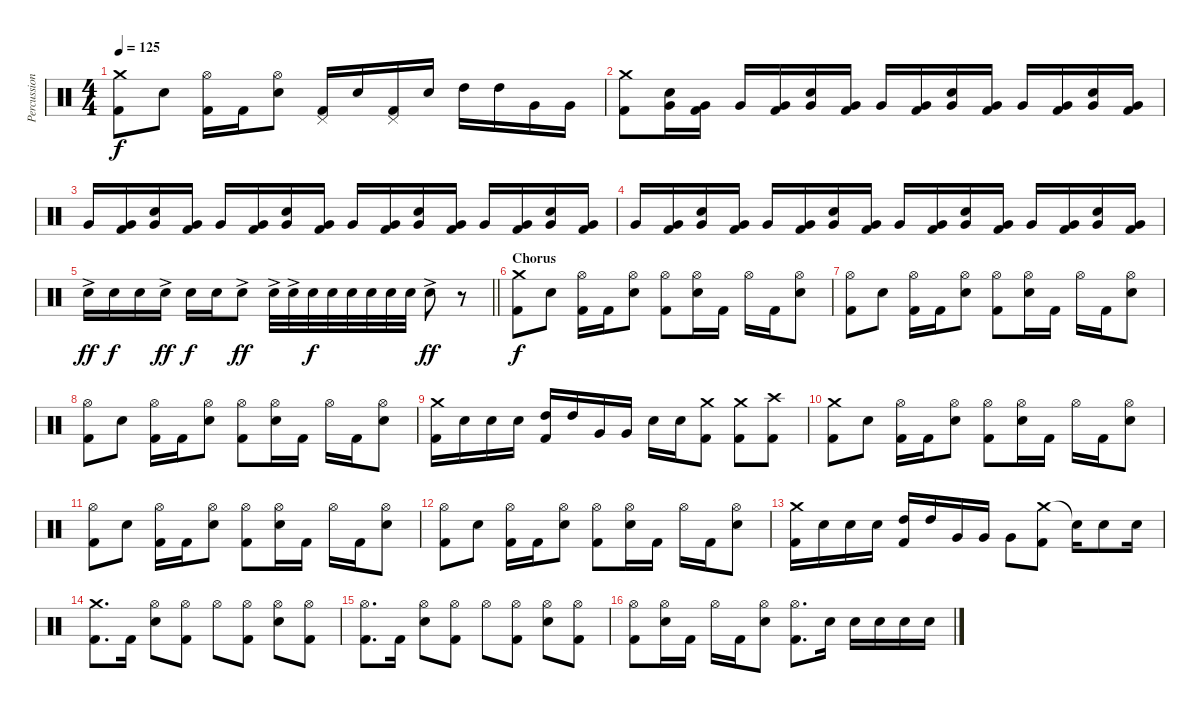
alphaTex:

\track ("Percussion" "Percussion") {instrument percussion}
\staff {score}
\articulation defaults
\ts (4 4)
\tempo 125
\clef neutral
\ks c
("Crash medium (hit)" "Kick (hit) 2").8{dy f} "Electric Snare (hit)".8 ("Hi-Hat (open)" "Kick (hit) 2").16 "Kick (hit) 2".16 ("Hi-Hat (open)" "Electric Snare (hit)").8 ("Pedal Hi-Hat (hit)" "Kick (hit) 2").16 "Electric Snare (hit)".16 ("Pedal Hi-Hat (hit)" "Kick (hit) 2").16 "Electric Snare (hit)".16 "High Tom (hit)".16 "High Tom (hit)".16 "Very Low Tom (hit)".16 "Very Low Tom (hit)".16 |
("Crash medium (hit)" "Kick (hit) 2").8 ("Electric Snare (hit)" "Very Low Tom (hit)").16 ("Very Low Tom (hit)" "Kick (hit) 2").16 "Very Low Tom (hit)".16 ("Very Low Tom (hit)" "Kick (hit) 2").16 ("Electric Snare (hit)" "Very Low Tom (hit)").16 ("Very Low Tom (hit)" "Kick (hit) 2").16 "Very Low Tom (hit)".16 ("Very Low Tom (hit)" "Kick (hit) 2").16 ("Electric Snare (hit)" "Very Low Tom (hit)").16 ("Very Low Tom (hit)" "Kick (hit) 2").16 "Very Low Tom (hit)".16 ("Very Low Tom (hit)" "Kick (hit) 2").16 ("Electric Snare (hit)" "Very Low Tom (hit)").16 ("Very Low Tom (hit)" "Kick (hit) 2").16 |
"Very Low Tom (hit)".16 ("Very Low Tom (hit)" "Kick (hit) 2").16 ("Electric Snare (hit)" "Very Low Tom (hit)").16 ("Very Low Tom (hit)" "Kick (hit) 2").16 "Very Low Tom (hit)".16 ("Very Low Tom (hit)" "Kick (hit) 2").16 ("Electric Snare (hit)" "Very Low Tom (hit)").16 ("Very Low Tom (hit)" "Kick (hit) 2").16 "Very Low Tom (hit)".16 ("Very Low Tom (hit)" "Kick (hit) 2").16 ("Electric Snare (hit)" "Very Low Tom (hit)").16 ("Very Low Tom (hit)" "Kick (hit) 2").16 "Very Low Tom (hit)".16 ("Very Low Tom (hit)" "Kick (hit) 2").16 ("Electric Snare (hit)" "Very Low Tom (hit)").16 ("Very Low Tom (hit)" "Kick (hit) 2").16 |
"Very Low Tom (hit)".16 ("Very Low Tom (hit)" "Kick (hit) 2").16 ("Electric Snare (hit)" "Very Low Tom (hit)").16 ("Very Low Tom (hit)" "Kick (hit) 2").16 "Very Low Tom (hit)".16 ("Very Low Tom (hit)" "Kick (hit) 2").16 ("Electric Snare (hit)" "Very Low Tom (hit)").16 ("Very Low Tom (hit)" "Kick (hit) 2").16 "Very Low Tom (hit)".16 ("Very Low Tom (hit)" "Kick (hit) 2").16 ("Electric Snare (hit)" "Very Low Tom (hit)").16 ("Very Low Tom (hit)" "Kick (hit) 2").16 "Very Low Tom (hit)".16 ("Very Low Tom (hit)" "Kick (hit) 2").16 ("Electric Snare (hit)" "Very Low Tom (hit)").16 ("Very Low Tom (hit)" "Kick (hit) 2").16 |
\barLineRight lightlight "Electric Snare (hit)"{ac}.16{dy ff} "Electric Snare (hit)".16{dy f} "Electric Snare (hit)".16 "Electric Snare (hit)"{ac}.16{dy ff} "Electric Snare (hit)".16{dy f} "Electric Snare (hit)".16 "Electric Snare (hit)"{ac}.8{dy ff} "Electric Snare (hit)"{ac}.32 "Electric Snare (hit)"{ac}.32 "Electric Snare (hit)".32{dy f} "Electric Snare (hit)".32 "Electric Snare (hit)".32 "Electric Snare (hit)".32 "Electric Snare (hit)".32 "Electric Snare (hit)".32 "Electric Snare (hit)"{ac}.8{dy ff}
r.8 |
\section ("" "Chorus")
("Crash medium (hit)" "Kick (hit) 2").8{dy f} "Electric Snare (hit)".8 ("Hi-Hat (open)" "Kick (hit) 2").16 "Kick (hit) 2".16 ("Hi-Hat (open)" "Electric Snare (hit)").8 ("Hi-Hat (open)" "Kick (hit) 2").8 ("Hi-Hat (open)" "Electric Snare (hit)").16 "Kick (hit) 2".16 "Hi-Hat (open)".16 "Kick (hit) 2".16 ("Hi-Hat (open)" "Electric Snare (hit)").8 |
("Hi-Hat (open)" "Kick (hit) 2").8 "Electric Snare (hit)".8 ("Hi-Hat (open)" "Kick (hit) 2").16 "Kick (hit) 2".16 ("Hi-Hat (open)" "Electric Snare (hit)").8 ("Hi-Hat (open)" "Kick (hit) 2").8 ("Hi-Hat (open)" "Electric Snare (hit)").16 "Kick (hit) 2".16 "Hi-Hat (open)".16 "Kick (hit) 2".16 ("Hi-Hat (open)" "Electric Snare (hit)").8 |
("Hi-Hat (open)" "Kick (hit) 2").8 "Electric Snare (hit)".8 ("Hi-Hat (open)" "Kick (hit) 2").16 "Kick (hit) 2".16 ("Hi-Hat (open)" "Electric Snare (hit)").8 ("Hi-Hat (open)" "Kick (hit) 2").8 ("Hi-Hat (open)" "Electric Snare (hit)").16 "Kick (hit) 2".16 "Hi-Hat (open)".16 "Kick (hit) 2".16 ("Hi-Hat (open)" "Electric Snare (hit)").8 |
("Crash medium (hit)" "Kick (hit) 2").16 "Electric Snare (hit)".16 "Electric Snare (hit)".16 "Electric Snare (hit)".16 ("High Tom (hit)" "Kick (hit) 2").16 "High Tom (hit)".16 "Very Low Tom (hit)".16 "Very Low Tom (hit)".16 "Electric Snare (hit)".16 "Electric Snare (hit)".16 ("Crash medium (hit)" "Kick (hit) 2").8 ("Crash medium (hit)" "Kick (hit) 2").8 ("Crash high (hit)" "Kick (hit) 2").8 |
("Crash medium (hit)" "Kick (hit) 2").8 "Electric Snare (hit)".8 ("Hi-Hat (open)" "Kick (hit) 2").16 "Kick (hit) 2".16 ("Hi-Hat (open)" "Electric Snare (hit)").8 ("Hi-Hat (open)" "Kick (hit) 2").8 ("Hi-Hat (open)" "Electric Snare (hit)").16 "Kick (hit) 2".16 "Hi-Hat (open)".16 "Kick (hit) 2".16 ("Hi-Hat (open)" "Electric Snare (hit)").8 |
("Hi-Hat (open)" "Kick (hit) 2").8 "Electric Snare (hit)".8 ("Hi-Hat (open)" "Kick (hit) 2").16 "Kick (hit) 2".16 ("Hi-Hat (open)" "Electric Snare (hit)").8 ("Hi-Hat (open)" "Kick (hit) 2").8 ("Hi-Hat (open)" "Electric Snare (hit)").16 "Kick (hit) 2".16 "Hi-Hat (open)".16 "Kick (hit) 2".16 ("Hi-Hat (open)" "Electric Snare (hit)").8 |
("Hi-Hat (open)" "Kick (hit) 2").8 "Electric Snare (hit)".8 ("Hi-Hat (open)" "Kick (hit) 2").16 "Kick (hit) 2".16 ("Hi-Hat (open)" "Electric Snare (hit)").8 ("Hi-Hat (open)" "Kick (hit) 2").8 ("Hi-Hat (open)" "Electric Snare (hit)").16 "Kick (hit) 2".16 "Hi-Hat (open)".16 "Kick (hit) 2".16 ("Hi-Hat (open)" "Electric Snare (hit)").8 |
("Crash medium (hit)" "Kick (hit) 2").16 "Electric Snare (hit)".16 "Electric Snare (hit)".16 "Electric Snare (hit)".16 ("High Tom (hit)" "Kick (hit) 2").16 "High Tom (hit)".16 "Very Low Tom (hit)".16 "Very Low Tom (hit)".16 "Very Low Tom (hit)".8 ("Crash medium (hit)" "Kick (hit) 2").8 "Snare (hit)"{t}.16 "Electric Snare (hit)".8 "Electric Snare (hit)".16 |
("Crash medium (hit)" "Kick (hit) 2").8{d} "Kick (hit) 2".16 ("Hi-Hat (open)" "Electric Snare (hit)").8 ("Hi-Hat (open)" "Kick (hit) 2").8 "Hi-Hat (open)".8 ("Hi-Hat (open)" "Kick (hit) 2").8 ("Hi-Hat (open)" "Electric Snare (hit)").8 ("Hi-Hat (open)" "Kick (hit) 2").8 |
("Hi-Hat (open)" "Kick (hit) 2").8{d} "Kick (hit) 2".16 ("Hi-Hat (open)" "Electric Snare (hit)").8 ("Hi-Hat (open)" "Kick (hit) 2").8 "Hi-Hat (open)".8 ("Hi-Hat (open)" "Kick (hit) 2").8 ("Hi-Hat (open)" "Electric Snare (hit)").8 ("Hi-Hat (open)" "Kick (hit) 2").8 |
("Hi-Hat (open)" "Kick (hit) 2").8 ("Hi-Hat (open)" "Electric Snare (hit)").16 "Kick (hit) 2".16 "Hi-Hat (open)".16 "Kick (hit) 2".16 ("Hi-Hat (open)" "Electric Snare (hit)").8 ("Hi-Hat (open)" "Kick (hit) 2").8{d} "Electric Snare (hit)".16 "Electric Snare (hit)".16 "Electric Snare (hit)".16 "Electric Snare (hit)".16 "Electric Snare (hit)".16
